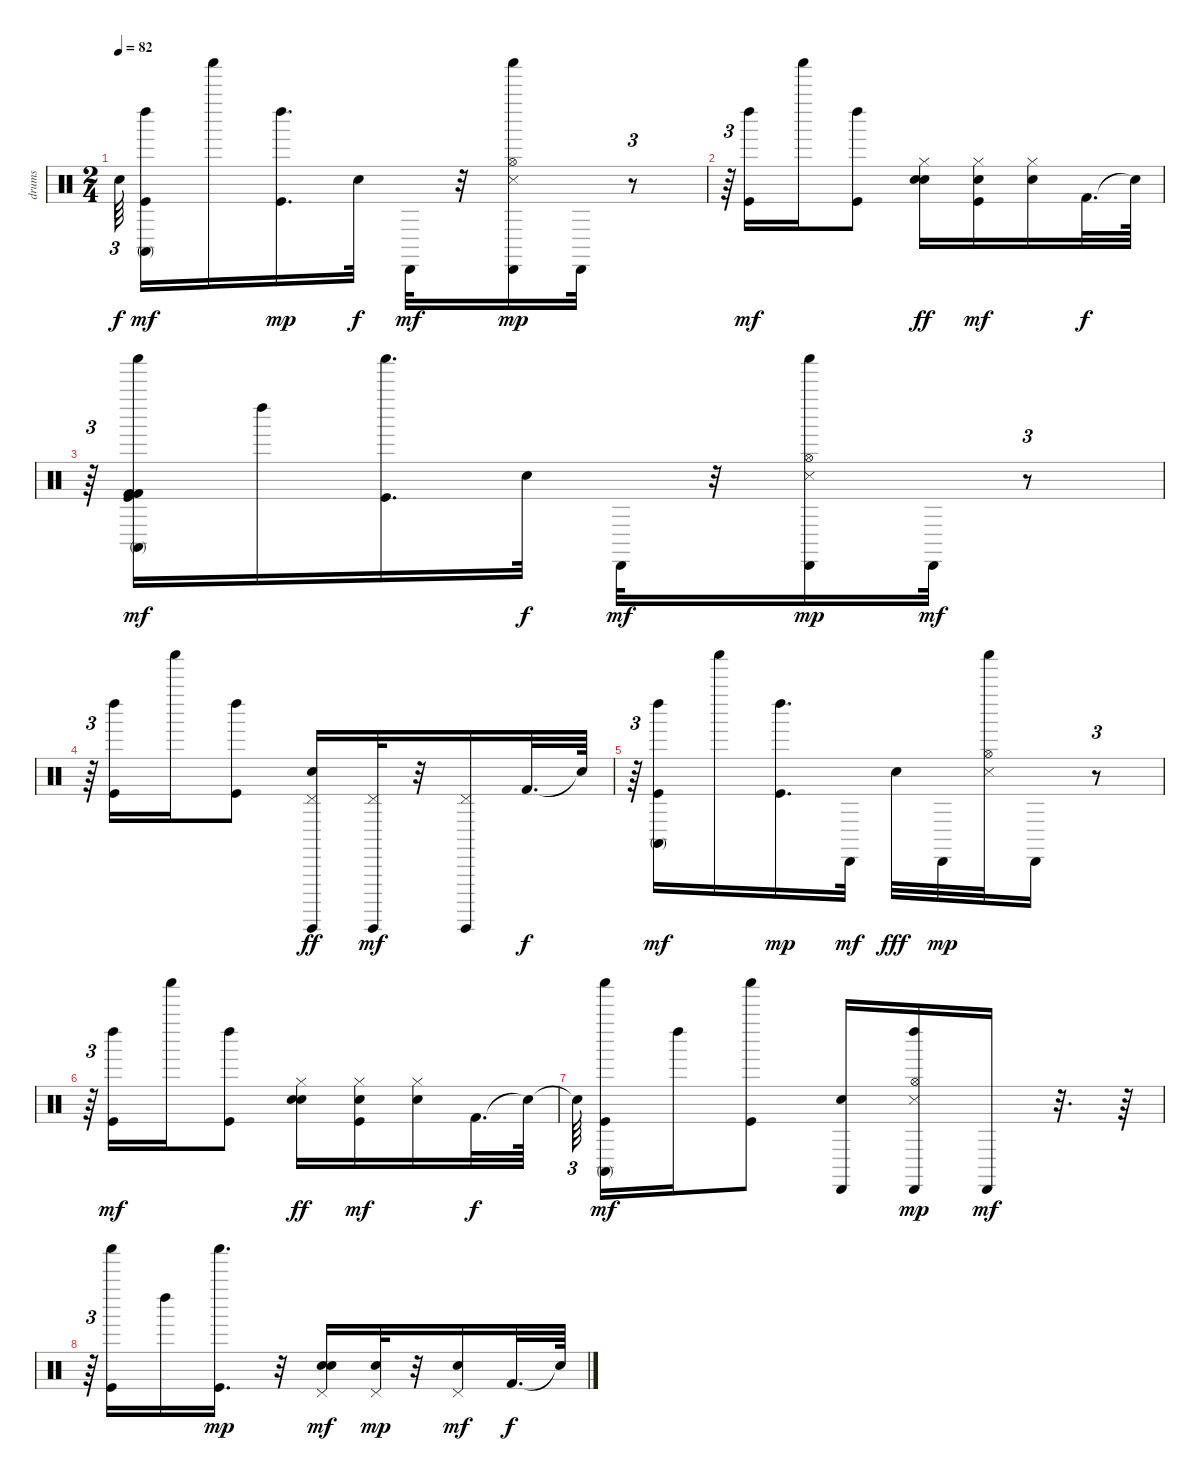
\track ("drums" "drums") {instrument percussion}
\staff {score}
\articulation defaults
\ts (2 4)
\tempo 82
\clef neutral
\ks c "Snare (hit)"{t}.64{tu (3 2) dy f beam splitsecondary}
("Kick (hit)" "Left Maraca (hit)" "Conga high (mute)").16{dy mf} "Shaker (hit)".16 ("Kick (hit)" "Left Maraca (hit)").16{d dy mp} "Electric Snare (hit)".32{dy f} "Cabasa (hit)".32{dy mf} r.32 ("Snare (side stick) 3" "Shaker (hit)" "Hi-Hat (open)" "Cabasa (hit)").16{dy mp} "Cabasa (hit)".32 r.8{tu (3 2)} |
r.64{tu (3 2)} ("Kick (hit)" "Left Maraca (hit)").16{dy mf} "Shaker (hit)".16 ("Kick (hit)" "Left Maraca (hit)").8 ("Hand Clap (hit)" "Hi-Hat (closed)" "Electric Snare (hit)").16{dy ff} ("Kick (hit)" "Hi-Hat (closed)" "Hand Clap (hit)").16{dy mf} ("Hi-Hat (closed)" "Hand Clap (hit)").16 "Kick (hit) 2".32{d dy f} "Snare (hit)"{t}.64 |
r.64{tu (3 2)} ("Kick (hit) 2" "Kick (hit) 2" "Kick (hit)" "Shaker (hit)" "Conga high (mute)").16{dy mf} "Left Maraca (hit)".16 ("Kick (hit)" "Shaker (hit)").16{d} "Electric Snare (hit)".32{dy f} "Cabasa (hit)".32{dy mf} r.32 ("Cabasa (hit)" "Hi-Hat (open)" "Shaker (hit)" "Snare (side stick) 3").16{dy mp} "Cabasa (hit)".32{dy mf} r.8{tu (3 2)} |
r.64{tu (3 2)} ("Kick (hit)" "Left Maraca (hit)").16 "Shaker (hit)".16 ("Kick (hit)" "Left Maraca (hit)").8 ("Pedal Hi-Hat (hit)" "Guiro (hit)" "Electric Snare (hit)").16{dy ff} ("Guiro (hit)" "Pedal Hi-Hat (hit)").32{dy mf} r.32 ("Guiro (hit)" "Pedal Hi-Hat (hit)").16 "Kick (hit) 2".32{d dy f} "Snare (hit)"{t}.64 |
r.64{tu (3 2)} ("Kick (hit)" "Left Maraca (hit)" "Conga high (mute)").16{dy mf} "Shaker (hit)".16 ("Kick (hit)" "Left Maraca (hit)").16{d dy mp} "Cabasa (hit)".32{dy mf} "Electric Snare (hit)".32{dy fff} "Cabasa (hit)".32{dy mp} ("Snare (side stick) 3" "Shaker (hit)" "Hi-Hat (open)").32 "Cabasa (hit)".16 r.8{tu (3 2)} |
r.64{tu (3 2)} ("Kick (hit)" "Left Maraca (hit)").16{dy mf} "Shaker (hit)".16 ("Kick (hit)" "Left Maraca (hit)").8 ("Hand Clap (hit)" "Hi-Hat (closed)" "Electric Snare (hit)").16{dy ff} ("Kick (hit)" "Hi-Hat (closed)" "Hand Clap (hit)").16{dy mf} ("Hi-Hat (closed)" "Hand Clap (hit)").16 "Kick (hit) 2".32{d dy f} "Snare (hit)"{t}.64 |
"Snare (hit)"{t}.64{tu (3 2) beam splitsecondary} ("Kick (hit)" "Shaker (hit)" "Conga high (mute)").16{dy mf} "Left Maraca (hit)".16 ("Kick (hit)" "Shaker (hit)").8 ("Electric Snare (hit)" "Cabasa (hit)").16 ("Hi-Hat (open)" "Left Maraca (hit)" "Snare (side stick) 3" "Cabasa (hit)").16{dy mp} "Cabasa (hit)".16{dy mf} r.32{d} r.64 |
r.64{tu (3 2)} ("Kick (hit)" "Shaker (hit)").16 "Left Maraca (hit)".16 ("Kick (hit)" "Shaker (hit)").16{d dy mp} r.32 ("Electric Snare (hit)" "Hand Clap (hit)" "Pedal Hi-Hat (hit)").16{dy mf} ("Pedal Hi-Hat (hit)" "Hand Clap (hit)").32{dy mp} r.32 ("Pedal Hi-Hat (hit)" "Hand Clap (hit)").16{dy mf} "Kick (hit) 2".32{d dy f} "Snare (hit)"{t}.64
